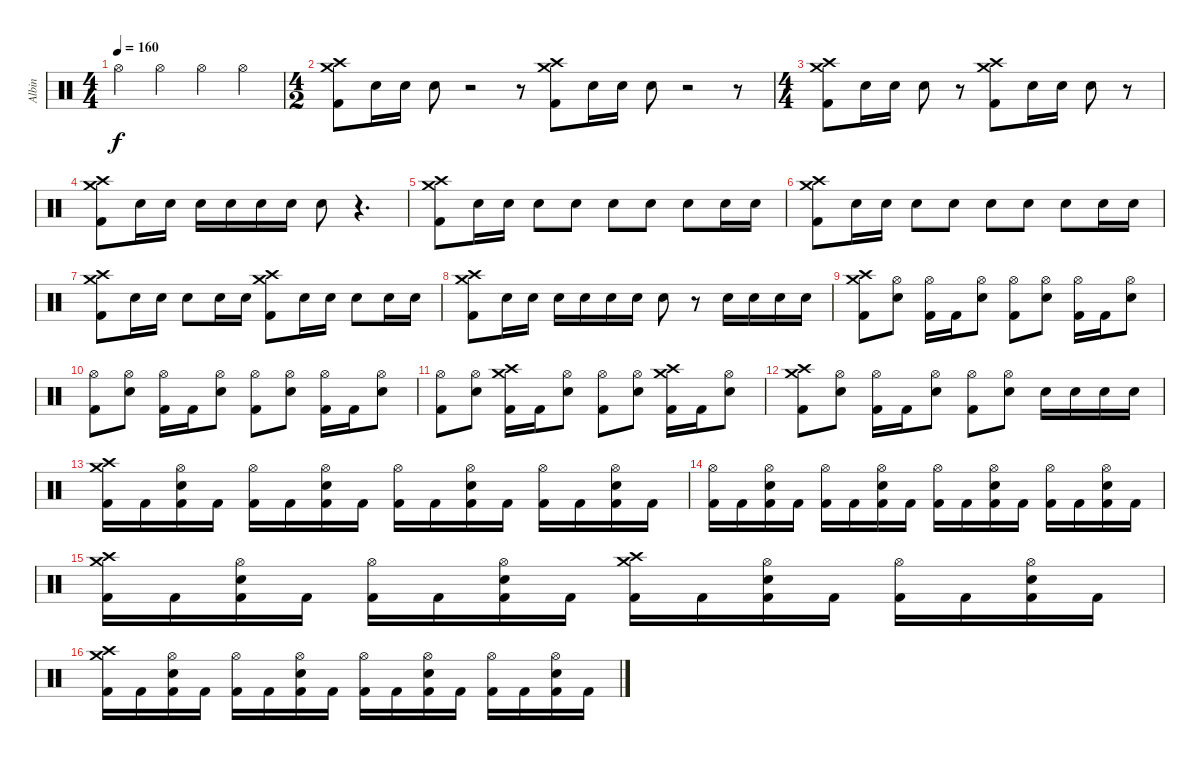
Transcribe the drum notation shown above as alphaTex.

\track ("Albin" "Albin") {instrument percussion}
\staff {score}
\articulation defaults
\ts (4 4)
\tempo 160
\clef neutral
\ks c "Hi-Hat (open)".4{dy f} "Hi-Hat (open)".4 "Hi-Hat (open)".4 "Hi-Hat (open)".4
|
\ts (4 2)
("Kick (hit) 2" "Crash high (hit)" "Crash medium (hit)").8 "Electric Snare (hit)".16 "Electric Snare (hit)".16 "Electric Snare (hit)".8 r.2 r.8 ("Kick (hit) 2" "Crash high (hit)" "Crash medium (hit)").8 "Electric Snare (hit)".16 "Electric Snare (hit)".16 "Electric Snare (hit)".8 r.2 r.8 |
\ts (4 4)
("Kick (hit) 2" "Crash high (hit)" "Crash medium (hit)").8 "Electric Snare (hit)".16 "Electric Snare (hit)".16 "Electric Snare (hit)".8 r.8 ("Kick (hit) 2" "Crash high (hit)" "Crash medium (hit)").8 "Electric Snare (hit)".16 "Electric Snare (hit)".16 "Electric Snare (hit)".8 r.8 |
("Kick (hit) 2" "Crash high (hit)" "Crash medium (hit)").8 "Electric Snare (hit)".16 "Electric Snare (hit)".16 "Electric Snare (hit)".16 "Electric Snare (hit)".16 "Electric Snare (hit)".16 "Electric Snare (hit)".16 "Electric Snare (hit)".8 r.4{d} |
("Kick (hit) 2" "Crash high (hit)" "Crash medium (hit)").8 "Electric Snare (hit)".16 "Electric Snare (hit)".16 "Electric Snare (hit)".8 "Electric Snare (hit)".8 "Electric Snare (hit)".8 "Electric Snare (hit)".8 "Electric Snare (hit)".8 "Electric Snare (hit)".16 "Electric Snare (hit)".16 |
("Kick (hit) 2" "Crash medium (hit)" "Crash high (hit)").8 "Electric Snare (hit)".16 "Electric Snare (hit)".16 "Electric Snare (hit)".8 "Electric Snare (hit)".8 "Electric Snare (hit)".8 "Electric Snare (hit)".8 "Electric Snare (hit)".8 "Electric Snare (hit)".16 "Electric Snare (hit)".16 |
("Kick (hit) 2" "Crash high (hit)" "Crash medium (hit)").8 "Electric Snare (hit)".16 "Electric Snare (hit)".16 "Electric Snare (hit)".8 "Electric Snare (hit)".16 "Electric Snare (hit)".16 ("Kick (hit) 2" "Crash high (hit)" "Crash medium (hit)").8 "Electric Snare (hit)".16 "Electric Snare (hit)".16 "Electric Snare (hit)".8 "Electric Snare (hit)".16 "Electric Snare (hit)".16 |
("Kick (hit) 2" "Crash high (hit)" "Crash medium (hit)").8 "Electric Snare (hit)".16 "Electric Snare (hit)".16 "Electric Snare (hit)".16 "Electric Snare (hit)".16 "Electric Snare (hit)".16 "Electric Snare (hit)".16 "Electric Snare (hit)".8 r.8 "Electric Snare (hit)".16 "Electric Snare (hit)".16 "Electric Snare (hit)".16 "Electric Snare (hit)".16 |
("Kick (hit) 2" "Crash high (hit)" "Crash medium (hit)").8 ("Electric Snare (hit)" "Hi-Hat (open)").8 ("Kick (hit) 2" "Hi-Hat (open)").16 "Kick (hit) 2".16 ("Electric Snare (hit)" "Hi-Hat (open)").8 ("Kick (hit) 2" "Hi-Hat (open)").8 ("Electric Snare (hit)" "Hi-Hat (open)").8 ("Kick (hit) 2" "Hi-Hat (open)").16 "Kick (hit) 2".16 ("Electric Snare (hit)" "Hi-Hat (open)").8 |
("Kick (hit) 2" "Hi-Hat (open)").8 ("Electric Snare (hit)" "Hi-Hat (open)").8 ("Kick (hit) 2" "Hi-Hat (open)").16 "Kick (hit) 2".16 ("Electric Snare (hit)" "Hi-Hat (open)").8 ("Kick (hit) 2" "Hi-Hat (open)").8 ("Electric Snare (hit)" "Hi-Hat (open)").8 ("Kick (hit) 2" "Hi-Hat (open)").16 "Kick (hit) 2".16 ("Electric Snare (hit)" "Hi-Hat (open)").8 |
("Kick (hit) 2" "Hi-Hat (open)").8 ("Electric Snare (hit)" "Hi-Hat (open)").8 ("Kick (hit) 2" "Crash high (hit)" "Crash medium (hit)").16 "Kick (hit) 2".16 ("Electric Snare (hit)" "Hi-Hat (open)").8 ("Kick (hit) 2" "Hi-Hat (open)").8 ("Electric Snare (hit)" "Hi-Hat (open)").8 ("Kick (hit) 2" "Crash high (hit)" "Crash medium (hit)").16 "Kick (hit) 2".16 ("Electric Snare (hit)" "Hi-Hat (open)").8 |
("Kick (hit) 2" "Crash high (hit)" "Crash medium (hit)").8 ("Electric Snare (hit)" "Hi-Hat (open)").8 ("Kick (hit) 2" "Hi-Hat (open)").16 "Kick (hit) 2".16 ("Electric Snare (hit)" "Hi-Hat (open)").8 ("Kick (hit) 2" "Hi-Hat (open)").8 ("Electric Snare (hit)" "Hi-Hat (open)").8 "Electric Snare (hit)".16 "Electric Snare (hit)".16 "Electric Snare (hit)".16 "Electric Snare (hit)".16 |
("Kick (hit) 2" "Crash high (hit)" "Crash medium (hit)").16 "Kick (hit) 2".16 ("Kick (hit) 2" "Electric Snare (hit)" "Hi-Hat (open)").16 "Kick (hit) 2".16 ("Kick (hit) 2" "Hi-Hat (open)").16 "Kick (hit) 2".16 ("Kick (hit) 2" "Electric Snare (hit)" "Hi-Hat (open)").16 "Kick (hit) 2".16 ("Kick (hit) 2" "Hi-Hat (open)").16 "Kick (hit) 2".16 ("Kick (hit) 2" "Electric Snare (hit)" "Hi-Hat (open)").16 "Kick (hit) 2".16 ("Kick (hit) 2" "Hi-Hat (open)").16 "Kick (hit) 2".16 ("Kick (hit) 2" "Electric Snare (hit)" "Hi-Hat (open)").16 "Kick (hit) 2".16 |
("Kick (hit) 2" "Hi-Hat (open)").16 "Kick (hit) 2".16 ("Kick (hit) 2" "Electric Snare (hit)" "Hi-Hat (open)").16 "Kick (hit) 2".16 ("Kick (hit) 2" "Hi-Hat (open)").16 "Kick (hit) 2".16 ("Kick (hit) 2" "Electric Snare (hit)" "Hi-Hat (open)").16 "Kick (hit) 2".16 ("Kick (hit) 2" "Hi-Hat (open)").16 "Kick (hit) 2".16 ("Kick (hit) 2" "Electric Snare (hit)" "Hi-Hat (open)").16 "Kick (hit) 2".16 ("Kick (hit) 2" "Hi-Hat (open)").16 "Kick (hit) 2".16 ("Kick (hit) 2" "Electric Snare (hit)" "Hi-Hat (open)").16 "Kick (hit) 2".16 |
("Kick (hit) 2" "Crash high (hit)" "Crash medium (hit)").16 "Kick (hit) 2".16 ("Kick (hit) 2" "Electric Snare (hit)" "Hi-Hat (open)").16 "Kick (hit) 2".16 ("Kick (hit) 2" "Hi-Hat (open)").16 "Kick (hit) 2".16 ("Kick (hit) 2" "Electric Snare (hit)" "Hi-Hat (open)").16 "Kick (hit) 2".16 ("Kick (hit) 2" "Crash high (hit)" "Crash medium (hit)").16 "Kick (hit) 2".16 ("Kick (hit) 2" "Electric Snare (hit)" "Hi-Hat (open)").16 "Kick (hit) 2".16 ("Kick (hit) 2" "Hi-Hat (open)").16 "Kick (hit) 2".16 ("Kick (hit) 2" "Electric Snare (hit)" "Hi-Hat (open)").16 "Kick (hit) 2".16 |
("Kick (hit) 2" "Crash high (hit)" "Crash medium (hit)").16 "Kick (hit) 2".16 ("Kick (hit) 2" "Electric Snare (hit)" "Hi-Hat (open)").16 "Kick (hit) 2".16 ("Kick (hit) 2" "Hi-Hat (open)").16 "Kick (hit) 2".16 ("Kick (hit) 2" "Electric Snare (hit)" "Hi-Hat (open)").16 "Kick (hit) 2".16 ("Kick (hit) 2" "Hi-Hat (open)").16 "Kick (hit) 2".16 ("Kick (hit) 2" "Electric Snare (hit)" "Hi-Hat (open)").16 "Kick (hit) 2".16 ("Kick (hit) 2" "Hi-Hat (open)").16 "Kick (hit) 2".16 ("Kick (hit) 2" "Electric Snare (hit)" "Hi-Hat (open)").16 "Kick (hit) 2".16
